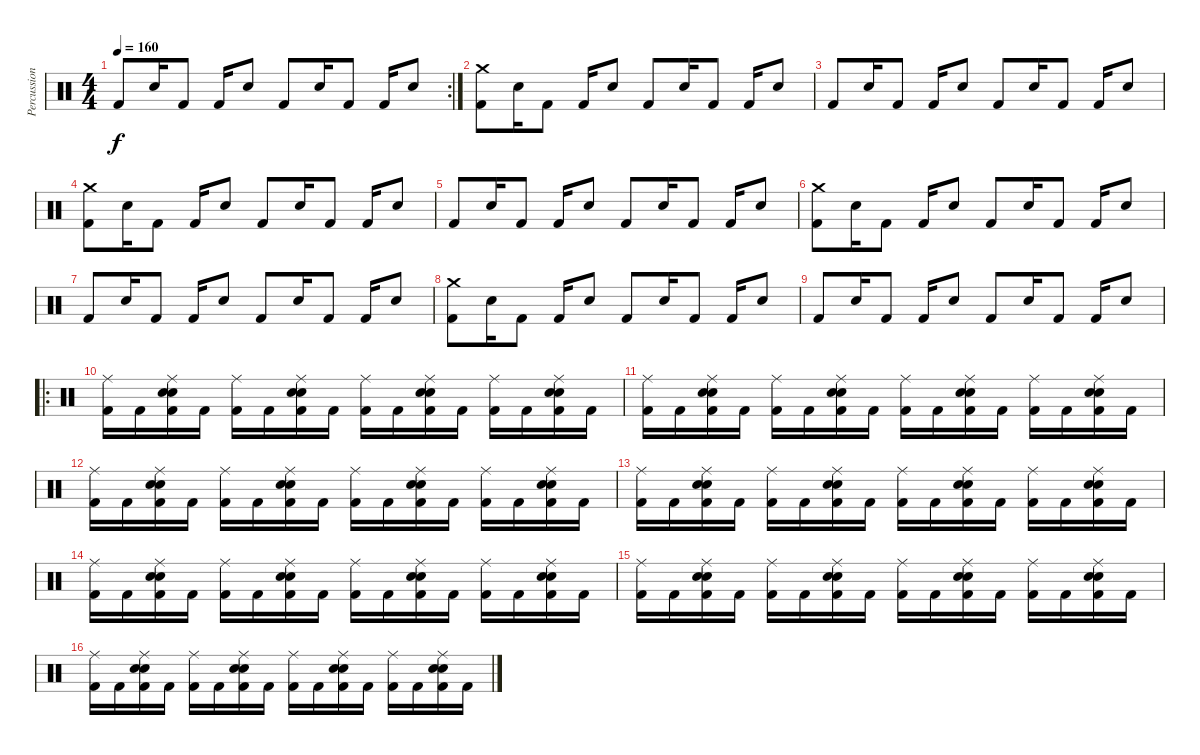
\track ("Percussion" "Percussion") {instrument percussion}
\staff {score}
\articulation defaults
\rc 2
\ts (4 4)
\tempo 160
\clef neutral
\ks c "Kick (hit) 2".8{dy f} "Electric Snare (hit)".16 "Kick (hit) 2".8 "Kick (hit) 2".16 "Electric Snare (hit)".8 "Kick (hit) 2".8 "Electric Snare (hit)".16 "Kick (hit) 2".8 "Kick (hit) 2".16 "Electric Snare (hit)".8
|
("Crash medium (hit)" "Kick (hit) 2").8 "Electric Snare (hit)".16 "Kick (hit) 2".8 "Kick (hit) 2".16 "Electric Snare (hit)".8 "Kick (hit) 2".8 "Electric Snare (hit)".16 "Kick (hit) 2".8 "Kick (hit) 2".16 "Electric Snare (hit)".8 |
"Kick (hit) 2".8 "Electric Snare (hit)".16 "Kick (hit) 2".8 "Kick (hit) 2".16 "Electric Snare (hit)".8 "Kick (hit) 2".8 "Electric Snare (hit)".16 "Kick (hit) 2".8 "Kick (hit) 2".16 "Electric Snare (hit)".8 |
("Crash medium (hit)" "Kick (hit) 2").8 "Electric Snare (hit)".16 "Kick (hit) 2".8 "Kick (hit) 2".16 "Electric Snare (hit)".8 "Kick (hit) 2".8 "Electric Snare (hit)".16 "Kick (hit) 2".8 "Kick (hit) 2".16 "Electric Snare (hit)".8 |
"Kick (hit) 2".8 "Electric Snare (hit)".16 "Kick (hit) 2".8 "Kick (hit) 2".16 "Electric Snare (hit)".8 "Kick (hit) 2".8 "Electric Snare (hit)".16 "Kick (hit) 2".8 "Kick (hit) 2".16 "Electric Snare (hit)".8 |
("Crash medium (hit)" "Kick (hit) 2").8 "Electric Snare (hit)".16 "Kick (hit) 2".8 "Kick (hit) 2".16 "Electric Snare (hit)".8 "Kick (hit) 2".8 "Electric Snare (hit)".16 "Kick (hit) 2".8 "Kick (hit) 2".16 "Electric Snare (hit)".8 |
"Kick (hit) 2".8 "Electric Snare (hit)".16 "Kick (hit) 2".8 "Kick (hit) 2".16 "Electric Snare (hit)".8 "Kick (hit) 2".8 "Electric Snare (hit)".16 "Kick (hit) 2".8 "Kick (hit) 2".16 "Electric Snare (hit)".8 |
("Crash medium (hit)" "Kick (hit) 2").8 "Electric Snare (hit)".16 "Kick (hit) 2".8 "Kick (hit) 2".16 "Electric Snare (hit)".8 "Kick (hit) 2".8 "Electric Snare (hit)".16 "Kick (hit) 2".8 "Kick (hit) 2".16 "Electric Snare (hit)".8 |
"Kick (hit) 2".8 "Electric Snare (hit)".16 "Kick (hit) 2".8 "Kick (hit) 2".16 "Electric Snare (hit)".8 "Kick (hit) 2".8 "Electric Snare (hit)".16 "Kick (hit) 2".8 "Kick (hit) 2".16 "Electric Snare (hit)".8 |
\ro
("Ride (middle)" "Kick (hit) 2").16 "Kick (hit) 2".16 ("Electric Snare (hit)" "Snare (hit) 2" "Ride (middle)" "Kick (hit) 2").16 "Kick (hit) 2".16 ("Ride (middle)" "Kick (hit) 2").16 "Kick (hit) 2".16 ("Electric Snare (hit)" "Snare (hit) 2" "Ride (middle)" "Kick (hit) 2").16 "Kick (hit) 2".16 ("Ride (middle)" "Kick (hit) 2").16 "Kick (hit) 2".16 ("Electric Snare (hit)" "Snare (hit) 2" "Ride (middle)" "Kick (hit) 2").16 "Kick (hit) 2".16 ("Ride (middle)" "Kick (hit) 2").16 "Kick (hit) 2".16 ("Electric Snare (hit)" "Snare (hit) 2" "Ride (middle)" "Kick (hit) 2").16 "Kick (hit) 2".16 |
("Ride (middle)" "Kick (hit) 2").16 "Kick (hit) 2".16 ("Electric Snare (hit)" "Snare (hit) 2" "Ride (middle)" "Kick (hit) 2").16 "Kick (hit) 2".16 ("Ride (middle)" "Kick (hit) 2").16 "Kick (hit) 2".16 ("Electric Snare (hit)" "Snare (hit) 2" "Ride (middle)" "Kick (hit) 2").16 "Kick (hit) 2".16 ("Ride (middle)" "Kick (hit) 2").16 "Kick (hit) 2".16 ("Electric Snare (hit)" "Snare (hit) 2" "Ride (middle)" "Kick (hit) 2").16 "Kick (hit) 2".16 ("Ride (middle)" "Kick (hit) 2").16 "Kick (hit) 2".16 ("Electric Snare (hit)" "Snare (hit) 2" "Ride (middle)" "Kick (hit) 2").16 "Kick (hit) 2".16 |
("Ride (middle)" "Kick (hit) 2").16 "Kick (hit) 2".16 ("Electric Snare (hit)" "Snare (hit) 2" "Ride (middle)" "Kick (hit) 2").16 "Kick (hit) 2".16 ("Ride (middle)" "Kick (hit) 2").16 "Kick (hit) 2".16 ("Electric Snare (hit)" "Snare (hit) 2" "Ride (middle)" "Kick (hit) 2").16 "Kick (hit) 2".16 ("Ride (middle)" "Kick (hit) 2").16 "Kick (hit) 2".16 ("Electric Snare (hit)" "Snare (hit) 2" "Ride (middle)" "Kick (hit) 2").16 "Kick (hit) 2".16 ("Ride (middle)" "Kick (hit) 2").16 "Kick (hit) 2".16 ("Electric Snare (hit)" "Snare (hit) 2" "Ride (middle)" "Kick (hit) 2").16 "Kick (hit) 2".16 |
("Ride (middle)" "Kick (hit) 2").16 "Kick (hit) 2".16 ("Electric Snare (hit)" "Snare (hit) 2" "Ride (middle)" "Kick (hit) 2").16 "Kick (hit) 2".16 ("Ride (middle)" "Kick (hit) 2").16 "Kick (hit) 2".16 ("Electric Snare (hit)" "Snare (hit) 2" "Ride (middle)" "Kick (hit) 2").16 "Kick (hit) 2".16 ("Ride (middle)" "Kick (hit) 2").16 "Kick (hit) 2".16 ("Electric Snare (hit)" "Snare (hit) 2" "Ride (middle)" "Kick (hit) 2").16 "Kick (hit) 2".16 ("Ride (middle)" "Kick (hit) 2").16 "Kick (hit) 2".16 ("Electric Snare (hit)" "Snare (hit) 2" "Ride (middle)" "Kick (hit) 2").16 "Kick (hit) 2".16 |
("Ride (middle)" "Kick (hit) 2").16 "Kick (hit) 2".16 ("Electric Snare (hit)" "Snare (hit) 2" "Ride (middle)" "Kick (hit) 2").16 "Kick (hit) 2".16 ("Ride (middle)" "Kick (hit) 2").16 "Kick (hit) 2".16 ("Electric Snare (hit)" "Snare (hit) 2" "Ride (middle)" "Kick (hit) 2").16 "Kick (hit) 2".16 ("Ride (middle)" "Kick (hit) 2").16 "Kick (hit) 2".16 ("Electric Snare (hit)" "Snare (hit) 2" "Ride (middle)" "Kick (hit) 2").16 "Kick (hit) 2".16 ("Ride (middle)" "Kick (hit) 2").16 "Kick (hit) 2".16 ("Electric Snare (hit)" "Snare (hit) 2" "Ride (middle)" "Kick (hit) 2").16 "Kick (hit) 2".16 |
("Ride (middle)" "Kick (hit) 2").16 "Kick (hit) 2".16 ("Electric Snare (hit)" "Snare (hit) 2" "Ride (middle)" "Kick (hit) 2").16 "Kick (hit) 2".16 ("Ride (middle)" "Kick (hit) 2").16 "Kick (hit) 2".16 ("Electric Snare (hit)" "Snare (hit) 2" "Ride (middle)" "Kick (hit) 2").16 "Kick (hit) 2".16 ("Ride (middle)" "Kick (hit) 2").16 "Kick (hit) 2".16 ("Electric Snare (hit)" "Snare (hit) 2" "Ride (middle)" "Kick (hit) 2").16 "Kick (hit) 2".16 ("Ride (middle)" "Kick (hit) 2").16 "Kick (hit) 2".16 ("Electric Snare (hit)" "Snare (hit) 2" "Ride (middle)" "Kick (hit) 2").16 "Kick (hit) 2".16 |
("Ride (middle)" "Kick (hit) 2").16 "Kick (hit) 2".16 ("Electric Snare (hit)" "Snare (hit) 2" "Ride (middle)" "Kick (hit) 2").16 "Kick (hit) 2".16 ("Ride (middle)" "Kick (hit) 2").16 "Kick (hit) 2".16 ("Electric Snare (hit)" "Snare (hit) 2" "Ride (middle)" "Kick (hit) 2").16 "Kick (hit) 2".16 ("Ride (middle)" "Kick (hit) 2").16 "Kick (hit) 2".16 ("Electric Snare (hit)" "Snare (hit) 2" "Ride (middle)" "Kick (hit) 2").16 "Kick (hit) 2".16 ("Ride (middle)" "Kick (hit) 2").16 "Kick (hit) 2".16 ("Electric Snare (hit)" "Snare (hit) 2" "Ride (middle)" "Kick (hit) 2").16 "Kick (hit) 2".16
